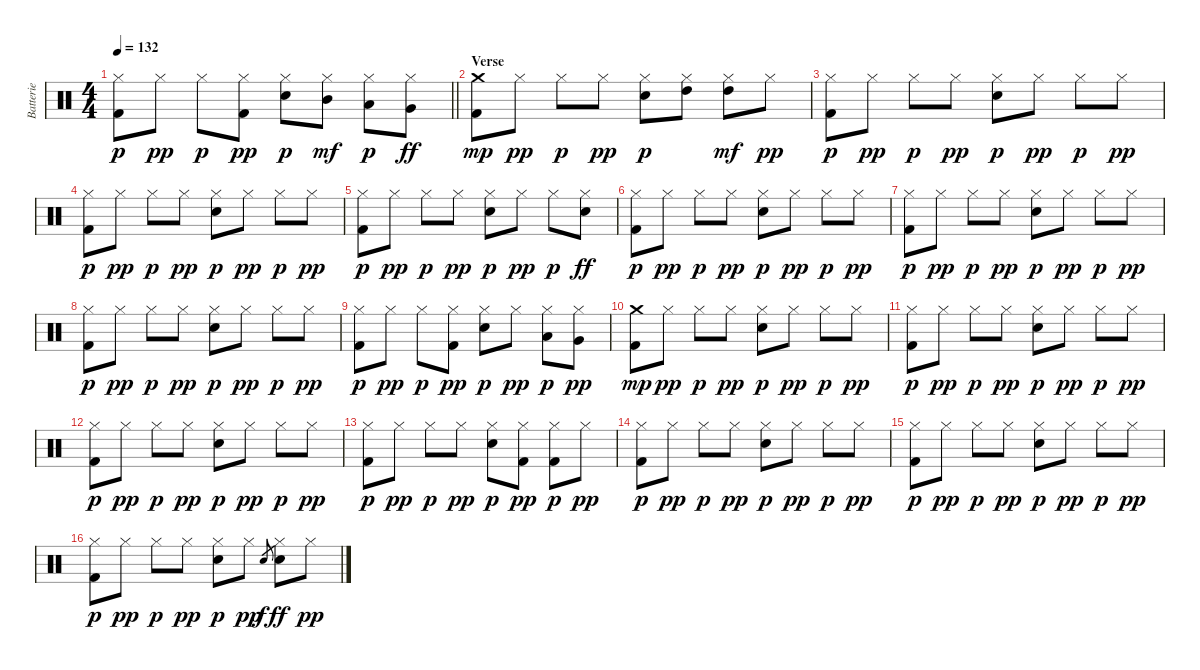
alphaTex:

\track ("Batterie" "Batterie") {instrument percussion}
\staff {score}
\articulation defaults
\ts (4 4)
\tempo 132
\clef neutral
\barLineRight lightlight
\ks c
("Hi-Hat (closed)" "Kick (hit) 2").8{dy p} "Hi-Hat (closed)".8{dy pp} "Hi-Hat (closed)".8{dy p} ("Hi-Hat (closed)" "Kick (hit) 2").8{dy pp} ("Hi-Hat (closed)" "Electric Snare (hit)").8{dy p} ("Hi-Hat (closed)" "Mid Tom (hit)").8{dy mf} ("Hi-Hat (closed)" "Low Tom (hit)").8{dy p} ("Hi-Hat (closed)" "Very Low Tom (hit)").8{dy ff} |
\section ("" "Verse")
("Crash medium (hit)" "Kick (hit) 2").8{dy mp} "Hi-Hat (closed)".8{dy pp} "Hi-Hat (closed)".8{dy p} "Hi-Hat (closed)".8{dy pp} ("Hi-Hat (closed)" "Electric Snare (hit)").8{dy p} ("Hi-Hat (closed)" "High Tom (hit)").8 ("Hi-Hat (closed)" "High Tom (hit)").8{dy mf} "Hi-Hat (closed)".8{dy pp} |
("Hi-Hat (closed)" "Kick (hit) 2").8{dy p} "Hi-Hat (closed)".8{dy pp} "Hi-Hat (closed)".8{dy p} "Hi-Hat (closed)".8{dy pp} ("Hi-Hat (closed)" "Electric Snare (hit)").8{dy p} "Hi-Hat (closed)".8{dy pp} "Hi-Hat (closed)".8{dy p} "Hi-Hat (closed)".8{dy pp} |
("Hi-Hat (closed)" "Kick (hit) 2").8{dy p} "Hi-Hat (closed)".8{dy pp} "Hi-Hat (closed)".8{dy p} "Hi-Hat (closed)".8{dy pp} ("Hi-Hat (closed)" "Electric Snare (hit)").8{dy p} "Hi-Hat (closed)".8{dy pp} "Hi-Hat (closed)".8{dy p} "Hi-Hat (closed)".8{dy pp} |
("Hi-Hat (closed)" "Kick (hit) 2").8{dy p} "Hi-Hat (closed)".8{dy pp} "Hi-Hat (closed)".8{dy p} "Hi-Hat (closed)".8{dy pp} ("Hi-Hat (closed)" "Electric Snare (hit)").8{dy p} "Hi-Hat (closed)".8{dy pp} "Hi-Hat (closed)".8{dy p} ("Hi-Hat (closed)" "Electric Snare (hit)").8{dy ff} |
("Hi-Hat (closed)" "Kick (hit) 2").8{dy p} "Hi-Hat (closed)".8{dy pp} "Hi-Hat (closed)".8{dy p} "Hi-Hat (closed)".8{dy pp} ("Hi-Hat (closed)" "Electric Snare (hit)").8{dy p} "Hi-Hat (closed)".8{dy pp} "Hi-Hat (closed)".8{dy p} "Hi-Hat (closed)".8{dy pp} |
("Hi-Hat (closed)" "Kick (hit) 2").8{dy p} "Hi-Hat (closed)".8{dy pp} "Hi-Hat (closed)".8{dy p} "Hi-Hat (closed)".8{dy pp} ("Hi-Hat (closed)" "Electric Snare (hit)").8{dy p} "Hi-Hat (closed)".8{dy pp} "Hi-Hat (closed)".8{dy p} "Hi-Hat (closed)".8{dy pp} |
("Hi-Hat (closed)" "Kick (hit) 2").8{dy p} "Hi-Hat (closed)".8{dy pp} "Hi-Hat (closed)".8{dy p} "Hi-Hat (closed)".8{dy pp} ("Hi-Hat (closed)" "Electric Snare (hit)").8{dy p} "Hi-Hat (closed)".8{dy pp} "Hi-Hat (closed)".8{dy p} "Hi-Hat (closed)".8{dy pp} |
("Hi-Hat (closed)" "Kick (hit) 2").8{dy p} "Hi-Hat (closed)".8{dy pp} "Hi-Hat (closed)".8{dy p} ("Hi-Hat (closed)" "Kick (hit) 2").8{dy pp} ("Hi-Hat (closed)" "Electric Snare (hit)").8{dy p} "Hi-Hat (closed)".8{dy pp} ("Hi-Hat (closed)" "Low Tom (hit)").8{dy p} ("Hi-Hat (closed)" "Very Low Tom (hit)").8{dy pp} |
("Crash medium (hit)" "Kick (hit) 2").8{dy mp} "Hi-Hat (closed)".8{dy pp} "Hi-Hat (closed)".8{dy p} "Hi-Hat (closed)".8{dy pp} ("Hi-Hat (closed)" "Electric Snare (hit)").8{dy p} "Hi-Hat (closed)".8{dy pp} "Hi-Hat (closed)".8{dy p} "Hi-Hat (closed)".8{dy pp} |
("Hi-Hat (closed)" "Kick (hit) 2").8{dy p} "Hi-Hat (closed)".8{dy pp} "Hi-Hat (closed)".8{dy p} "Hi-Hat (closed)".8{dy pp} ("Hi-Hat (closed)" "Electric Snare (hit)").8{dy p} "Hi-Hat (closed)".8{dy pp} "Hi-Hat (closed)".8{dy p} "Hi-Hat (closed)".8{dy pp} |
("Hi-Hat (closed)" "Kick (hit) 2").8{dy p} "Hi-Hat (closed)".8{dy pp} "Hi-Hat (closed)".8{dy p} "Hi-Hat (closed)".8{dy pp} ("Hi-Hat (closed)" "Electric Snare (hit)").8{dy p} "Hi-Hat (closed)".8{dy pp} "Hi-Hat (closed)".8{dy p} "Hi-Hat (closed)".8{dy pp} |
("Hi-Hat (closed)" "Kick (hit) 2").8{dy p} "Hi-Hat (closed)".8{dy pp} "Hi-Hat (closed)".8{dy p} "Hi-Hat (closed)".8{dy pp} ("Hi-Hat (closed)" "Electric Snare (hit)").8{dy p} ("Hi-Hat (closed)" "Kick (hit) 2").8{dy pp} ("Hi-Hat (closed)" "Kick (hit) 2").8{dy p} "Hi-Hat (closed)".8{dy pp} |
("Hi-Hat (closed)" "Kick (hit) 2").8{dy p} "Hi-Hat (closed)".8{dy pp} "Hi-Hat (closed)".8{dy p} "Hi-Hat (closed)".8{dy pp} ("Hi-Hat (closed)" "Electric Snare (hit)").8{dy p} "Hi-Hat (closed)".8{dy pp} "Hi-Hat (closed)".8{dy p} "Hi-Hat (closed)".8{dy pp} |
("Hi-Hat (closed)" "Kick (hit) 2").8{dy p} "Hi-Hat (closed)".8{dy pp} "Hi-Hat (closed)".8{dy p} "Hi-Hat (closed)".8{dy pp} ("Hi-Hat (closed)" "Electric Snare (hit)").8{dy p} "Hi-Hat (closed)".8{dy pp} "Hi-Hat (closed)".8{dy p} "Hi-Hat (closed)".8{dy pp} |
("Hi-Hat (closed)" "Kick (hit) 2").8{dy p} "Hi-Hat (closed)".8{dy pp} "Hi-Hat (closed)".8{dy p} "Hi-Hat (closed)".8{dy pp} ("Hi-Hat (closed)" "Electric Snare (hit)").8{dy p} "Hi-Hat (closed)".8{dy pp} "Electric Snare (hit)".8{gr dy f} ("Hi-Hat (closed)" "Electric Snare (hit)").8{dy ff} "Hi-Hat (closed)".8{dy pp}
